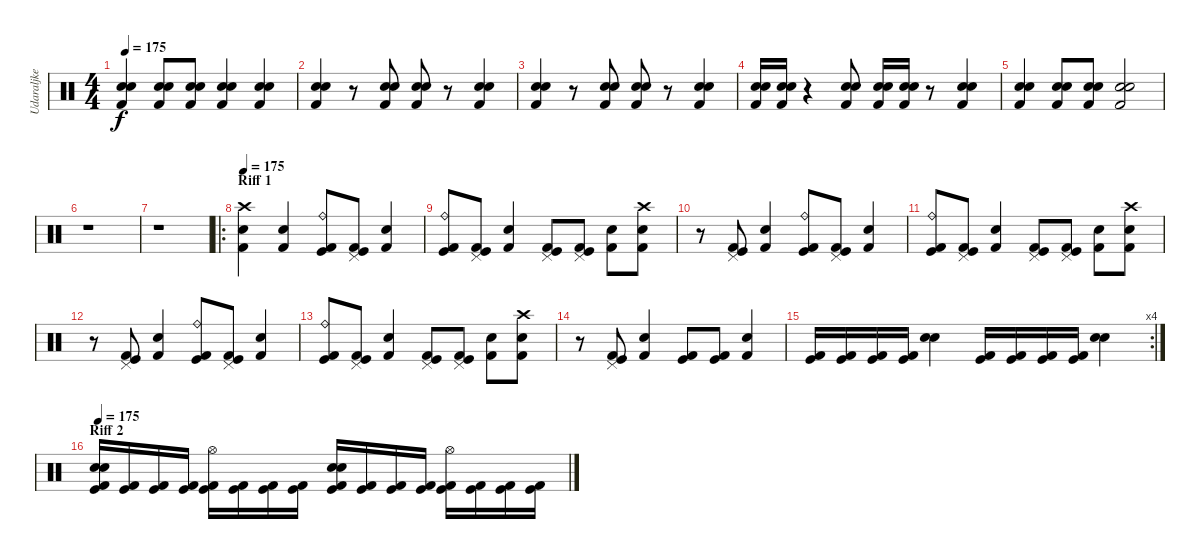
\track ("Udaraljke" "Udaraljke") {instrument percussion}
\staff {score}
\articulation defaults
\ts (4 4)
\tempo 175
\clef neutral
\ks c
("Electric Snare (hit)" "Snare (hit) 2" "Kick (hit) 2").4{dy f} ("Electric Snare (hit)" "Snare (hit) 2" "Kick (hit) 2").8 ("Electric Snare (hit)" "Snare (hit) 2" "Kick (hit) 2").8 ("Electric Snare (hit)" "Snare (hit) 2" "Kick (hit) 2").4 ("Electric Snare (hit)" "Snare (hit) 2" "Kick (hit) 2").4 |
("Electric Snare (hit)" "Snare (hit) 2" "Kick (hit) 2").4 r.8 ("Electric Snare (hit)" "Snare (hit) 2" "Kick (hit) 2").8 ("Electric Snare (hit)" "Snare (hit) 2" "Kick (hit) 2").8 r.8 ("Electric Snare (hit)" "Snare (hit) 2" "Kick (hit) 2").4 |
("Electric Snare (hit)" "Snare (hit) 2" "Kick (hit) 2").4 r.8 ("Electric Snare (hit)" "Snare (hit) 2" "Kick (hit) 2").8 ("Electric Snare (hit)" "Snare (hit) 2" "Kick (hit) 2").8 r.8 ("Electric Snare (hit)" "Snare (hit) 2" "Kick (hit) 2").4 |
("Electric Snare (hit)" "Snare (hit) 2" "Kick (hit) 2").16 ("Electric Snare (hit)" "Snare (hit) 2" "Kick (hit) 2").16 r.4 ("Electric Snare (hit)" "Snare (hit) 2" "Kick (hit) 2").8 ("Electric Snare (hit)" "Snare (hit) 2" "Kick (hit) 2").16 ("Electric Snare (hit)" "Snare (hit) 2" "Kick (hit) 2").16 r.8 ("Electric Snare (hit)" "Snare (hit) 2" "Kick (hit) 2").4 |
("Electric Snare (hit)" "Snare (hit) 2" "Kick (hit) 2").4 ("Electric Snare (hit)" "Snare (hit) 2" "Kick (hit) 2").8 ("Electric Snare (hit)" "Snare (hit) 2" "Kick (hit) 2").8 ("Electric Snare (hit)" "Snare (hit) 2" "Kick (hit) 2").2 |
r.1 |
r.1 |
\ro
\section ("" "Riff 1")
\tempo 175
("Crash high (hit)" "Snare (hit) 2" "Kick (hit) 2").4 ("Electric Snare (hit)" "Kick (hit) 2").4 ("Ride (bell)" "Kick (hit) 2" "Kick (hit)").8 ("Pedal Hi-Hat (hit)" "Kick (hit) 2" "Kick (hit)").8 ("Electric Snare (hit)" "Kick (hit) 2").4 |
("Ride (bell)" "Kick (hit) 2" "Kick (hit)").8 ("Pedal Hi-Hat (hit)" "Kick (hit) 2" "Kick (hit)").8 ("Electric Snare (hit)" "Kick (hit) 2").4 ("Pedal Hi-Hat (hit)" "Kick (hit) 2" "Kick (hit)").8 ("Pedal Hi-Hat (hit)" "Kick (hit) 2" "Kick (hit)").8 ("Electric Snare (hit)" "Kick (hit) 2").8 ("Crash high (hit)" "Snare (hit) 2" "Kick (hit) 2").8 |
r.8 ("Pedal Hi-Hat (hit)" "Kick (hit) 2" "Kick (hit)").8 ("Electric Snare (hit)" "Kick (hit) 2").4 ("Ride (bell)" "Kick (hit) 2" "Kick (hit)").8 ("Pedal Hi-Hat (hit)" "Kick (hit) 2" "Kick (hit)").8 ("Electric Snare (hit)" "Kick (hit) 2").4 |
("Ride (bell)" "Kick (hit) 2" "Kick (hit)").8 ("Pedal Hi-Hat (hit)" "Kick (hit) 2" "Kick (hit)").8 ("Electric Snare (hit)" "Kick (hit) 2").4 ("Pedal Hi-Hat (hit)" "Kick (hit) 2" "Kick (hit)").8 ("Pedal Hi-Hat (hit)" "Kick (hit) 2" "Kick (hit)").8 ("Electric Snare (hit)" "Kick (hit) 2").8 ("Crash high (hit)" "Snare (hit) 2" "Kick (hit) 2").8 |
r.8 ("Pedal Hi-Hat (hit)" "Kick (hit) 2" "Kick (hit)").8 ("Electric Snare (hit)" "Kick (hit) 2").4 ("Ride (bell)" "Kick (hit) 2" "Kick (hit)").8 ("Pedal Hi-Hat (hit)" "Kick (hit) 2" "Kick (hit)").8 ("Electric Snare (hit)" "Kick (hit) 2").4 |
("Ride (bell)" "Kick (hit) 2" "Kick (hit)").8 ("Pedal Hi-Hat (hit)" "Kick (hit) 2" "Kick (hit)").8 ("Electric Snare (hit)" "Kick (hit) 2").4 ("Pedal Hi-Hat (hit)" "Kick (hit) 2" "Kick (hit)").8 ("Pedal Hi-Hat (hit)" "Kick (hit) 2" "Kick (hit)").8 ("Electric Snare (hit)" "Kick (hit) 2").8 ("Crash high (hit)" "Snare (hit) 2" "Kick (hit) 2").8 |
r.8 ("Pedal Hi-Hat (hit)" "Kick (hit) 2" "Kick (hit)").8 ("Electric Snare (hit)" "Kick (hit) 2").4 ("Kick (hit) 2" "Kick (hit)").8 ("Kick (hit) 2" "Kick (hit)").8 ("Electric Snare (hit)" "Kick (hit) 2").4 |
\rc 4
("Kick (hit) 2" "Kick (hit)").16 ("Kick (hit) 2" "Kick (hit)").16 ("Kick (hit) 2" "Kick (hit)").16 ("Kick (hit) 2" "Kick (hit)").16 ("Electric Snare (hit)" "Snare (hit) 2").4 ("Kick (hit) 2" "Kick (hit)").16 ("Kick (hit) 2" "Kick (hit)").16 ("Kick (hit) 2" "Kick (hit)").16 ("Kick (hit) 2" "Kick (hit)").16 ("Electric Snare (hit)" "Snare (hit) 2").4 |
\section ("" "Riff 2")
\tempo 175
("Electric Snare (hit)" "Snare (hit) 2" "Kick (hit) 2" "Kick (hit)").16 ("Kick (hit) 2" "Kick (hit)").16 ("Kick (hit) 2" "Kick (hit)").16 ("Kick (hit) 2" "Kick (hit)").16 ("Hi-Hat (open)" "Kick (hit) 2" "Kick (hit)").16 ("Kick (hit) 2" "Kick (hit)").16 ("Kick (hit) 2" "Kick (hit)").16 ("Kick (hit) 2" "Kick (hit)").16 ("Electric Snare (hit)" "Snare (hit) 2" "Kick (hit) 2" "Kick (hit)").16 ("Kick (hit) 2" "Kick (hit)").16 ("Kick (hit) 2" "Kick (hit)").16 ("Kick (hit) 2" "Kick (hit)").16 ("Hi-Hat (open)" "Kick (hit) 2" "Kick (hit)").16 ("Kick (hit) 2" "Kick (hit)").16 ("Kick (hit) 2" "Kick (hit)").16 ("Kick (hit) 2" "Kick (hit)").16
